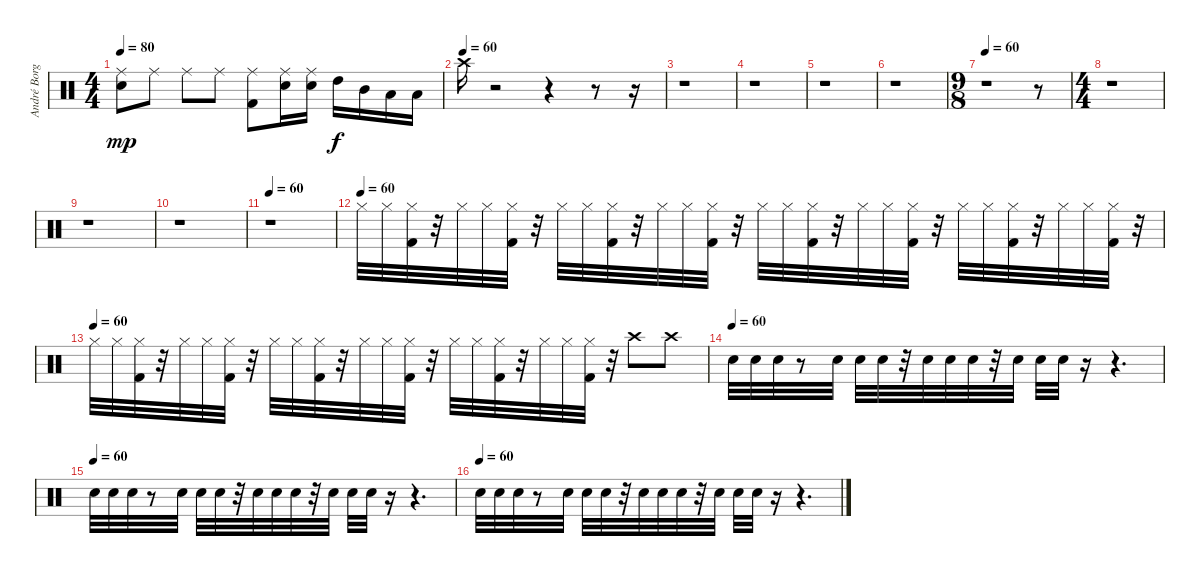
\track ("André Borgman" "André Borg") {instrument percussion}
\staff {score}
\articulation defaults
\ts (4 4)
\tempo 80
\clef neutral
\ks c
("Electric Snare (hit)" "Ride (middle)").8{dy mp} "Ride (middle)".8 "Ride (middle)".8 "Ride (middle)".8 ("Kick (hit) 2" "Ride (middle)").8 ("Electric Snare (hit)" "Ride (middle)").16 ("Electric Snare (hit)" "Ride (middle)").16 "High Tom (hit)".16{dy f} "Mid Tom (hit)".16 "Low Tom (hit)".16 "Low Floor Tom (hit)".16 |
\tempo (60)
"Crash high (hit)".16 r.2 r.4 r.8 r.16 |
r.1 |
r.1 |
r.1 |
r.1 |
\ts (9 8)
\tempo 60
r.1 r.8 |
\ts (4 4)
r.1 |
r.1 |
r.1 |
\tempo 60
r.1 |
\tempo (60)
"Hi-Hat (closed)".32 "Hi-Hat (closed)".32 ("Kick (hit) 2" "Hi-Hat (closed)").32 r.32 "Hi-Hat (closed)".32 "Hi-Hat (closed)".32 ("Kick (hit) 2" "Hi-Hat (closed)").32 r.32 "Hi-Hat (closed)".32 "Hi-Hat (closed)".32 ("Kick (hit) 2" "Hi-Hat (closed)").32 r.32 "Hi-Hat (closed)".32 "Hi-Hat (closed)".32 ("Kick (hit) 2" "Hi-Hat (closed)").32 r.32 "Hi-Hat (closed)".32 "Hi-Hat (closed)".32 ("Kick (hit) 2" "Hi-Hat (closed)").32 r.32 "Hi-Hat (closed)".32 "Hi-Hat (closed)".32 ("Kick (hit) 2" "Hi-Hat (closed)").32 r.32 "Hi-Hat (closed)".32 "Hi-Hat (closed)".32 ("Kick (hit) 2" "Hi-Hat (closed)").32 r.32 "Hi-Hat (closed)".32 "Hi-Hat (closed)".32 ("Kick (hit) 2" "Hi-Hat (closed)").32 r.32 |
\tempo (60)
"Hi-Hat (closed)".32 "Hi-Hat (closed)".32 ("Kick (hit) 2" "Hi-Hat (closed)").32 r.32 "Hi-Hat (closed)".32 "Hi-Hat (closed)".32 ("Kick (hit) 2" "Hi-Hat (closed)").32 r.32 "Hi-Hat (closed)".32 "Hi-Hat (closed)".32 ("Kick (hit) 2" "Hi-Hat (closed)").32 r.32 "Hi-Hat (closed)".32 "Hi-Hat (closed)".32 ("Kick (hit) 2" "Hi-Hat (closed)").32 r.32 "Hi-Hat (closed)".32 "Hi-Hat (closed)".32 ("Kick (hit) 2" "Hi-Hat (closed)").32 r.32 "Hi-Hat (closed)".32 "Hi-Hat (closed)".32 ("Kick (hit) 2" "Hi-Hat (closed)").32 r.32 "Crash high (hit)".8 "Crash high (hit)".8 |
\tempo (60)
"Electric Snare (hit)".32 "Electric Snare (hit)".32 "Electric Snare (hit)".32 r.8 "Electric Snare (hit)".32 "Electric Snare (hit)".32 "Electric Snare (hit)".32 r.32 "Electric Snare (hit)".32 "Electric Snare (hit)".32 "Electric Snare (hit)".32 r.32 "Electric Snare (hit)".32 "Electric Snare (hit)".32 "Electric Snare (hit)".32 r.16 r.4{d} |
\tempo (60)
"Electric Snare (hit)".32 "Electric Snare (hit)".32 "Electric Snare (hit)".32 r.8 "Electric Snare (hit)".32 "Electric Snare (hit)".32 "Electric Snare (hit)".32 r.32 "Electric Snare (hit)".32 "Electric Snare (hit)".32 "Electric Snare (hit)".32 r.32 "Electric Snare (hit)".32 "Electric Snare (hit)".32 "Electric Snare (hit)".32 r.16 r.4{d} |
\tempo (60)
"Electric Snare (hit)".32 "Electric Snare (hit)".32 "Electric Snare (hit)".32 r.8 "Electric Snare (hit)".32 "Electric Snare (hit)".32 "Electric Snare (hit)".32 r.32 "Electric Snare (hit)".32 "Electric Snare (hit)".32 "Electric Snare (hit)".32 r.32 "Electric Snare (hit)".32 "Electric Snare (hit)".32 "Electric Snare (hit)".32 r.16 r.4{d}
